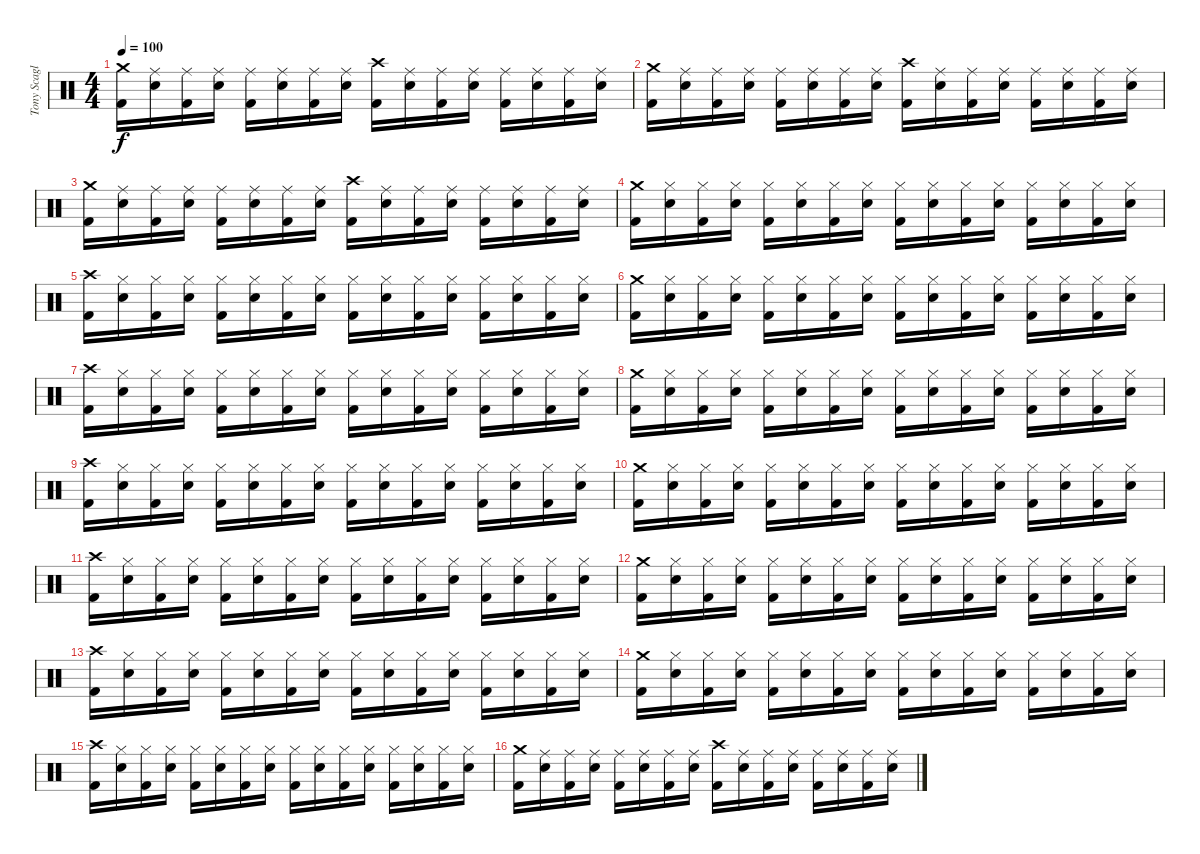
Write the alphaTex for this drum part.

\track ("Tony Scaglione" "Tony Scagl") {instrument percussion}
\staff {score}
\articulation defaults
\ts (4 4)
\tempo 100
\clef neutral
\ks c
("Crash medium (hit)" "Kick (hit) 2").16{dy f} ("Ride (middle)" "Snare (hit) 2").16 ("Ride (middle)" "Kick (hit) 2").16 ("Ride (middle)" "Snare (hit) 2").16 ("Ride (middle)" "Kick (hit) 2").16 ("Ride (middle)" "Snare (hit) 2").16 ("Ride (middle)" "Kick (hit) 2").16 ("Ride (middle)" "Snare (hit) 2").16 ("Crash high (hit)" "Kick (hit) 2").16 ("Ride (middle)" "Snare (hit) 2").16 ("Ride (middle)" "Kick (hit) 2").16 ("Ride (middle)" "Snare (hit) 2").16 ("Ride (middle)" "Kick (hit) 2").16 ("Ride (middle)" "Snare (hit) 2").16 ("Ride (middle)" "Kick (hit) 2").16 ("Ride (middle)" "Snare (hit) 2").16 |
("Crash medium (hit)" "Kick (hit) 2").16 ("Ride (middle)" "Snare (hit) 2").16 ("Ride (middle)" "Kick (hit) 2").16 ("Ride (middle)" "Snare (hit) 2").16 ("Ride (middle)" "Kick (hit) 2").16 ("Ride (middle)" "Snare (hit) 2").16 ("Ride (middle)" "Kick (hit) 2").16 ("Ride (middle)" "Snare (hit) 2").16 ("Crash high (hit)" "Kick (hit) 2").16 ("Ride (middle)" "Snare (hit) 2").16 ("Ride (middle)" "Kick (hit) 2").16 ("Ride (middle)" "Snare (hit) 2").16 ("Ride (middle)" "Kick (hit) 2").16 ("Ride (middle)" "Snare (hit) 2").16 ("Ride (middle)" "Kick (hit) 2").16 ("Ride (middle)" "Snare (hit) 2").16 |
("Crash medium (hit)" "Kick (hit) 2").16 ("Ride (middle)" "Snare (hit) 2").16 ("Ride (middle)" "Kick (hit) 2").16 ("Ride (middle)" "Snare (hit) 2").16 ("Ride (middle)" "Kick (hit) 2").16 ("Ride (middle)" "Snare (hit) 2").16 ("Ride (middle)" "Kick (hit) 2").16 ("Ride (middle)" "Snare (hit) 2").16 ("Crash high (hit)" "Kick (hit) 2").16 ("Ride (middle)" "Snare (hit) 2").16 ("Ride (middle)" "Kick (hit) 2").16 ("Ride (middle)" "Snare (hit) 2").16 ("Ride (middle)" "Kick (hit) 2").16 ("Ride (middle)" "Snare (hit) 2").16 ("Ride (middle)" "Kick (hit) 2").16 ("Ride (middle)" "Snare (hit) 2").16 |
("Crash medium (hit)" "Kick (hit) 2").16 ("Hi-Hat (closed)" "Snare (hit) 2").16 ("Hi-Hat (closed)" "Kick (hit) 2").16 ("Hi-Hat (closed)" "Snare (hit) 2").16 ("Hi-Hat (closed)" "Kick (hit) 2").16 ("Hi-Hat (closed)" "Snare (hit) 2").16 ("Hi-Hat (closed)" "Kick (hit) 2").16 ("Hi-Hat (closed)" "Snare (hit) 2").16 ("Hi-Hat (closed)" "Kick (hit) 2").16 ("Hi-Hat (closed)" "Snare (hit) 2").16 ("Hi-Hat (closed)" "Kick (hit) 2").16 ("Hi-Hat (closed)" "Snare (hit) 2").16 ("Hi-Hat (closed)" "Kick (hit) 2").16 ("Hi-Hat (closed)" "Snare (hit) 2").16 ("Hi-Hat (closed)" "Kick (hit) 2").16 ("Hi-Hat (closed)" "Snare (hit) 2").16 |
("Crash high (hit)" "Kick (hit) 2").16 ("Hi-Hat (closed)" "Snare (hit) 2").16 ("Hi-Hat (closed)" "Kick (hit) 2").16 ("Hi-Hat (closed)" "Snare (hit) 2").16 ("Hi-Hat (closed)" "Kick (hit) 2").16 ("Hi-Hat (closed)" "Snare (hit) 2").16 ("Hi-Hat (closed)" "Kick (hit) 2").16 ("Hi-Hat (closed)" "Snare (hit) 2").16 ("Hi-Hat (closed)" "Kick (hit) 2").16 ("Hi-Hat (closed)" "Snare (hit) 2").16 ("Hi-Hat (closed)" "Kick (hit) 2").16 ("Hi-Hat (closed)" "Snare (hit) 2").16 ("Hi-Hat (closed)" "Kick (hit) 2").16 ("Hi-Hat (closed)" "Snare (hit) 2").16 ("Hi-Hat (closed)" "Kick (hit) 2").16 ("Hi-Hat (closed)" "Snare (hit) 2").16 |
("Crash medium (hit)" "Kick (hit) 2").16 ("Hi-Hat (closed)" "Snare (hit) 2").16 ("Hi-Hat (closed)" "Kick (hit) 2").16 ("Hi-Hat (closed)" "Snare (hit) 2").16 ("Hi-Hat (closed)" "Kick (hit) 2").16 ("Hi-Hat (closed)" "Snare (hit) 2").16 ("Hi-Hat (closed)" "Kick (hit) 2").16 ("Hi-Hat (closed)" "Snare (hit) 2").16 ("Hi-Hat (closed)" "Kick (hit) 2").16 ("Hi-Hat (closed)" "Snare (hit) 2").16 ("Hi-Hat (closed)" "Kick (hit) 2").16 ("Hi-Hat (closed)" "Snare (hit) 2").16 ("Hi-Hat (closed)" "Kick (hit) 2").16 ("Hi-Hat (closed)" "Snare (hit) 2").16 ("Hi-Hat (closed)" "Kick (hit) 2").16 ("Hi-Hat (closed)" "Snare (hit) 2").16 |
("Crash high (hit)" "Kick (hit) 2").16 ("Hi-Hat (closed)" "Snare (hit) 2").16 ("Hi-Hat (closed)" "Kick (hit) 2").16 ("Hi-Hat (closed)" "Snare (hit) 2").16 ("Hi-Hat (closed)" "Kick (hit) 2").16 ("Hi-Hat (closed)" "Snare (hit) 2").16 ("Hi-Hat (closed)" "Kick (hit) 2").16 ("Hi-Hat (closed)" "Snare (hit) 2").16 ("Hi-Hat (closed)" "Kick (hit) 2").16 ("Hi-Hat (closed)" "Snare (hit) 2").16 ("Hi-Hat (closed)" "Kick (hit) 2").16 ("Hi-Hat (closed)" "Snare (hit) 2").16 ("Hi-Hat (closed)" "Kick (hit) 2").16 ("Hi-Hat (closed)" "Snare (hit) 2").16 ("Hi-Hat (closed)" "Kick (hit) 2").16 ("Hi-Hat (closed)" "Snare (hit) 2").16 |
("Crash medium (hit)" "Kick (hit) 2").16 ("Hi-Hat (closed)" "Snare (hit) 2").16 ("Hi-Hat (closed)" "Kick (hit) 2").16 ("Hi-Hat (closed)" "Snare (hit) 2").16 ("Hi-Hat (closed)" "Kick (hit) 2").16 ("Hi-Hat (closed)" "Snare (hit) 2").16 ("Hi-Hat (closed)" "Kick (hit) 2").16 ("Hi-Hat (closed)" "Snare (hit) 2").16 ("Hi-Hat (closed)" "Kick (hit) 2").16 ("Hi-Hat (closed)" "Snare (hit) 2").16 ("Hi-Hat (closed)" "Kick (hit) 2").16 ("Hi-Hat (closed)" "Snare (hit) 2").16 ("Hi-Hat (closed)" "Kick (hit) 2").16 ("Hi-Hat (closed)" "Snare (hit) 2").16 ("Hi-Hat (closed)" "Kick (hit) 2").16 ("Hi-Hat (closed)" "Snare (hit) 2").16 |
("Crash high (hit)" "Kick (hit) 2").16 ("Hi-Hat (closed)" "Snare (hit) 2").16 ("Hi-Hat (closed)" "Kick (hit) 2").16 ("Hi-Hat (closed)" "Snare (hit) 2").16 ("Hi-Hat (closed)" "Kick (hit) 2").16 ("Hi-Hat (closed)" "Snare (hit) 2").16 ("Hi-Hat (closed)" "Kick (hit) 2").16 ("Hi-Hat (closed)" "Snare (hit) 2").16 ("Hi-Hat (closed)" "Kick (hit) 2").16 ("Hi-Hat (closed)" "Snare (hit) 2").16 ("Hi-Hat (closed)" "Kick (hit) 2").16 ("Hi-Hat (closed)" "Snare (hit) 2").16 ("Hi-Hat (closed)" "Kick (hit) 2").16 ("Hi-Hat (closed)" "Snare (hit) 2").16 ("Hi-Hat (closed)" "Kick (hit) 2").16 ("Hi-Hat (closed)" "Snare (hit) 2").16 |
("Crash medium (hit)" "Kick (hit) 2").16 ("Hi-Hat (closed)" "Snare (hit) 2").16 ("Hi-Hat (closed)" "Kick (hit) 2").16 ("Hi-Hat (closed)" "Snare (hit) 2").16 ("Hi-Hat (closed)" "Kick (hit) 2").16 ("Hi-Hat (closed)" "Snare (hit) 2").16 ("Hi-Hat (closed)" "Kick (hit) 2").16 ("Hi-Hat (closed)" "Snare (hit) 2").16 ("Hi-Hat (closed)" "Kick (hit) 2").16 ("Hi-Hat (closed)" "Snare (hit) 2").16 ("Hi-Hat (closed)" "Kick (hit) 2").16 ("Hi-Hat (closed)" "Snare (hit) 2").16 ("Hi-Hat (closed)" "Kick (hit) 2").16 ("Hi-Hat (closed)" "Snare (hit) 2").16 ("Hi-Hat (closed)" "Kick (hit) 2").16 ("Hi-Hat (closed)" "Snare (hit) 2").16 |
("Crash high (hit)" "Kick (hit) 2").16 ("Hi-Hat (closed)" "Snare (hit) 2").16 ("Hi-Hat (closed)" "Kick (hit) 2").16 ("Hi-Hat (closed)" "Snare (hit) 2").16 ("Hi-Hat (closed)" "Kick (hit) 2").16 ("Hi-Hat (closed)" "Snare (hit) 2").16 ("Hi-Hat (closed)" "Kick (hit) 2").16 ("Hi-Hat (closed)" "Snare (hit) 2").16 ("Hi-Hat (closed)" "Kick (hit) 2").16 ("Hi-Hat (closed)" "Snare (hit) 2").16 ("Hi-Hat (closed)" "Kick (hit) 2").16 ("Hi-Hat (closed)" "Snare (hit) 2").16 ("Hi-Hat (closed)" "Kick (hit) 2").16 ("Hi-Hat (closed)" "Snare (hit) 2").16 ("Hi-Hat (closed)" "Kick (hit) 2").16 ("Hi-Hat (closed)" "Snare (hit) 2").16 |
("Crash medium (hit)" "Kick (hit) 2").16 ("Hi-Hat (closed)" "Snare (hit) 2").16 ("Hi-Hat (closed)" "Kick (hit) 2").16 ("Hi-Hat (closed)" "Snare (hit) 2").16 ("Hi-Hat (closed)" "Kick (hit) 2").16 ("Hi-Hat (closed)" "Snare (hit) 2").16 ("Hi-Hat (closed)" "Kick (hit) 2").16 ("Hi-Hat (closed)" "Snare (hit) 2").16 ("Hi-Hat (closed)" "Kick (hit) 2").16 ("Hi-Hat (closed)" "Snare (hit) 2").16 ("Hi-Hat (closed)" "Kick (hit) 2").16 ("Hi-Hat (closed)" "Snare (hit) 2").16 ("Hi-Hat (closed)" "Kick (hit) 2").16 ("Hi-Hat (closed)" "Snare (hit) 2").16 ("Hi-Hat (closed)" "Kick (hit) 2").16 ("Hi-Hat (closed)" "Snare (hit) 2").16 |
("Crash high (hit)" "Kick (hit) 2").16 ("Hi-Hat (closed)" "Snare (hit) 2").16 ("Hi-Hat (closed)" "Kick (hit) 2").16 ("Hi-Hat (closed)" "Snare (hit) 2").16 ("Hi-Hat (closed)" "Kick (hit) 2").16 ("Hi-Hat (closed)" "Snare (hit) 2").16 ("Hi-Hat (closed)" "Kick (hit) 2").16 ("Hi-Hat (closed)" "Snare (hit) 2").16 ("Hi-Hat (closed)" "Kick (hit) 2").16 ("Hi-Hat (closed)" "Snare (hit) 2").16 ("Hi-Hat (closed)" "Kick (hit) 2").16 ("Hi-Hat (closed)" "Snare (hit) 2").16 ("Hi-Hat (closed)" "Kick (hit) 2").16 ("Hi-Hat (closed)" "Snare (hit) 2").16 ("Hi-Hat (closed)" "Kick (hit) 2").16 ("Hi-Hat (closed)" "Snare (hit) 2").16 |
("Crash medium (hit)" "Kick (hit) 2").16 ("Hi-Hat (closed)" "Snare (hit) 2").16 ("Hi-Hat (closed)" "Kick (hit) 2").16 ("Hi-Hat (closed)" "Snare (hit) 2").16 ("Hi-Hat (closed)" "Kick (hit) 2").16 ("Hi-Hat (closed)" "Snare (hit) 2").16 ("Hi-Hat (closed)" "Kick (hit) 2").16 ("Hi-Hat (closed)" "Snare (hit) 2").16 ("Hi-Hat (closed)" "Kick (hit) 2").16 ("Hi-Hat (closed)" "Snare (hit) 2").16 ("Hi-Hat (closed)" "Kick (hit) 2").16 ("Hi-Hat (closed)" "Snare (hit) 2").16 ("Hi-Hat (closed)" "Kick (hit) 2").16 ("Hi-Hat (closed)" "Snare (hit) 2").16 ("Hi-Hat (closed)" "Kick (hit) 2").16 ("Hi-Hat (closed)" "Snare (hit) 2").16 |
("Crash high (hit)" "Kick (hit) 2").16 ("Hi-Hat (closed)" "Snare (hit) 2").16 ("Hi-Hat (closed)" "Kick (hit) 2").16 ("Hi-Hat (closed)" "Snare (hit) 2").16 ("Hi-Hat (closed)" "Kick (hit) 2").16 ("Hi-Hat (closed)" "Snare (hit) 2").16 ("Hi-Hat (closed)" "Kick (hit) 2").16 ("Hi-Hat (closed)" "Snare (hit) 2").16 ("Hi-Hat (closed)" "Kick (hit) 2").16 ("Hi-Hat (closed)" "Snare (hit) 2").16 ("Hi-Hat (closed)" "Kick (hit) 2").16 ("Hi-Hat (closed)" "Snare (hit) 2").16 ("Hi-Hat (closed)" "Kick (hit) 2").16 ("Hi-Hat (closed)" "Snare (hit) 2").16 ("Hi-Hat (closed)" "Kick (hit) 2").16 ("Hi-Hat (closed)" "Snare (hit) 2").16 |
("Crash medium (hit)" "Kick (hit) 2").16 ("Ride (middle)" "Snare (hit) 2").16 ("Ride (middle)" "Kick (hit) 2").16 ("Ride (middle)" "Snare (hit) 2").16 ("Ride (middle)" "Kick (hit) 2").16 ("Ride (middle)" "Snare (hit) 2").16 ("Ride (middle)" "Kick (hit) 2").16 ("Ride (middle)" "Snare (hit) 2").16 ("Crash high (hit)" "Kick (hit) 2").16 ("Ride (middle)" "Snare (hit) 2").16 ("Ride (middle)" "Kick (hit) 2").16 ("Ride (middle)" "Snare (hit) 2").16 ("Ride (middle)" "Kick (hit) 2").16 ("Ride (middle)" "Snare (hit) 2").16 ("Ride (middle)" "Kick (hit) 2").16 ("Ride (middle)" "Snare (hit) 2").16
